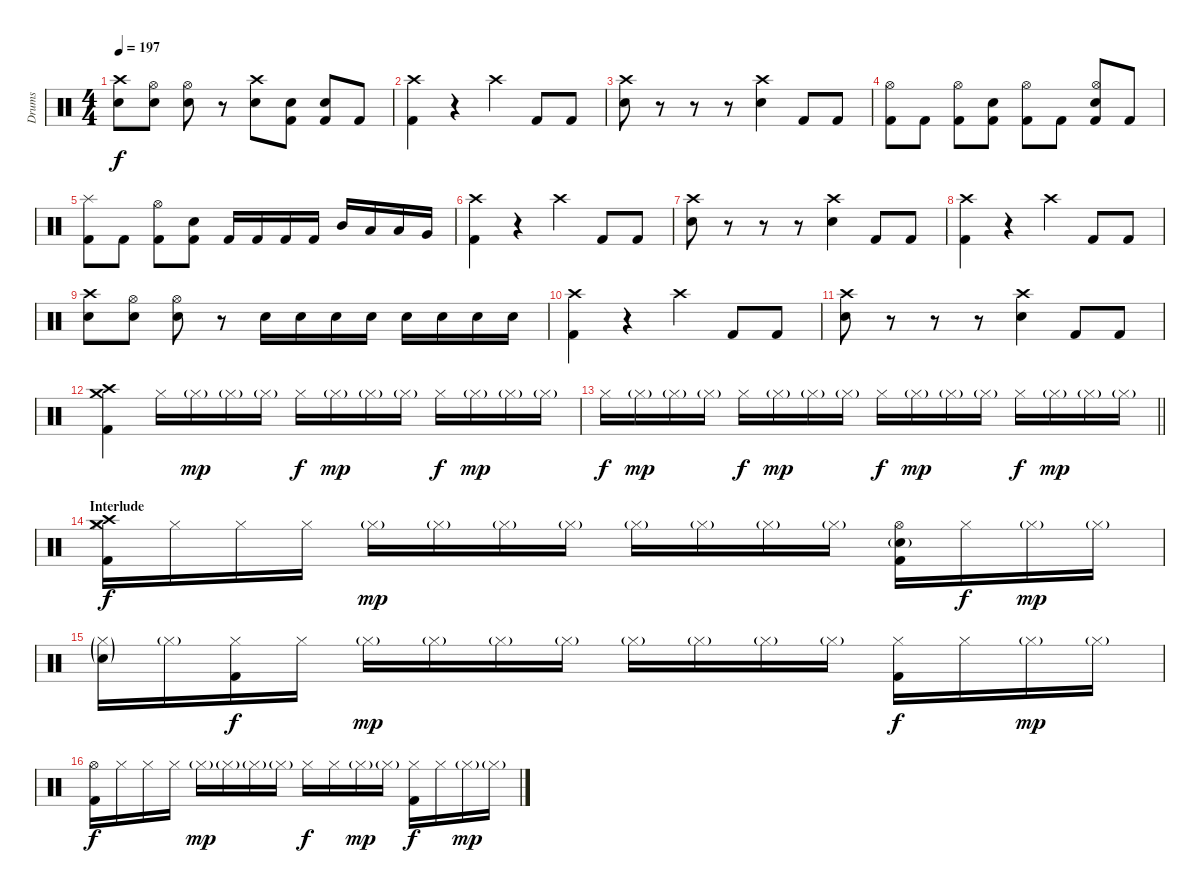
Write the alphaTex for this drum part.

\track ("Drums" "Drums") {instrument percussion}
\staff {score}
\articulation defaults
\ts (4 4)
\tempo 197
\clef neutral
\ks c
("Crash high (hit)" "Electric Snare (hit)").8{dy f} ("Hi-Hat (open)" "Electric Snare (hit)").8 ("Hi-Hat (open)" "Electric Snare (hit)").8 r.8 ("Crash high (hit)" "Electric Snare (hit)").8 ("Electric Snare (hit)" "Kick (hit) 2").8 ("Electric Snare (hit)" "Kick (hit) 2").8 "Kick (hit) 2".8 |
("Crash high (hit)" "Kick (hit) 2").4 r.4 "Crash high (hit)".4 "Kick (hit) 2".8 "Kick (hit) 2".8 |
("Crash high (hit)" "Electric Snare (hit)").8 r.8 r.8 r.8 ("Crash high (hit)" "Electric Snare (hit)").4 "Kick (hit) 2".8 "Kick (hit) 2".8 |
("Hi-Hat (open)" "Kick (hit) 2").8 "Kick (hit) 2".8 ("Hi-Hat (open)" "Kick (hit) 2").8 ("Electric Snare (hit)" "Kick (hit) 2").8 ("Hi-Hat (open)" "Kick (hit) 2").8 "Kick (hit) 2".8 ("Hi-Hat (open)" "Electric Snare (hit)" "Kick (hit) 2").8 "Kick (hit) 2".8 |
("Splash (hit)" "Kick (hit) 2").8 "Kick (hit) 2".8 ("Hi-Hat (open)" "Kick (hit) 2").8 ("Electric Snare (hit)" "Kick (hit) 2").8 "Kick (hit) 2".16 "Kick (hit) 2".16 "Kick (hit) 2".16 "Kick (hit) 2".16 "Mid Tom (hit)".16 "Low Tom (hit)".16 "Low Tom (hit)".16 "Very Low Tom (hit)".16 |
("Crash high (hit)" "Kick (hit) 2").4 r.4 "Crash high (hit)".4 "Kick (hit) 2".8 "Kick (hit) 2".8 |
("Crash high (hit)" "Electric Snare (hit)").8 r.8 r.8 r.8 ("Crash high (hit)" "Electric Snare (hit)").4 "Kick (hit) 2".8 "Kick (hit) 2".8 |
("Crash high (hit)" "Kick (hit) 2").4 r.4 "Crash high (hit)".4 "Kick (hit) 2".8 "Kick (hit) 2".8 |
("Crash high (hit)" "Electric Snare (hit)").8 ("Hi-Hat (open)" "Electric Snare (hit)").8 ("Hi-Hat (open)" "Electric Snare (hit)").8 r.8 "Electric Snare (hit)".16 "Electric Snare (hit)".16 "Electric Snare (hit)".16 "Electric Snare (hit)".16 "Electric Snare (hit)".16 "Electric Snare (hit)".16 "Electric Snare (hit)".16 "Electric Snare (hit)".16 |
("Crash high (hit)" "Kick (hit) 2").4 r.4 "Crash high (hit)".4 "Kick (hit) 2".8 "Kick (hit) 2".8 |
("Crash high (hit)" "Electric Snare (hit)").8 r.8 r.8 r.8 ("Crash high (hit)" "Electric Snare (hit)").4 "Kick (hit) 2".8 "Kick (hit) 2".8 |
("Crash medium (hit)" "Crash high (hit)" "Kick (hit) 2").4 "Hi-Hat (closed)".16 "Hi-Hat (closed)"{g}.16{dy mp} "Hi-Hat (closed)"{g}.16 "Hi-Hat (closed)"{g}.16 "Hi-Hat (closed)".16{dy f} "Hi-Hat (closed)"{g}.16{dy mp} "Hi-Hat (closed)"{g}.16 "Hi-Hat (closed)"{g}.16 "Hi-Hat (closed)".16{dy f} "Hi-Hat (closed)"{g}.16{dy mp} "Hi-Hat (closed)"{g}.16 "Hi-Hat (closed)"{g}.16 |
\barLineRight lightlight "Hi-Hat (closed)".16{dy f} "Hi-Hat (closed)"{g}.16{dy mp} "Hi-Hat (closed)"{g}.16 "Hi-Hat (closed)"{g}.16 "Hi-Hat (closed)".16{dy f} "Hi-Hat (closed)"{g}.16{dy mp} "Hi-Hat (closed)"{g}.16 "Hi-Hat (closed)"{g}.16 "Hi-Hat (closed)".16{dy f} "Hi-Hat (closed)"{g}.16{dy mp} "Hi-Hat (closed)"{g}.16 "Hi-Hat (closed)"{g}.16 "Hi-Hat (closed)".16{dy f} "Hi-Hat (closed)"{g}.16{dy mp} "Hi-Hat (closed)"{g}.16 "Hi-Hat (closed)"{g}.16
|
\section ("" "Interlude")
("Crash medium (hit)" "Crash high (hit)" "Hi-Hat (closed)" "Kick (hit) 2").16{dy f} "Hi-Hat (closed)".16 "Hi-Hat (closed)".16 "Hi-Hat (closed)".16 "Hi-Hat (closed)"{g}.16{dy mp} "Hi-Hat (closed)"{g}.16 "Hi-Hat (closed)"{g}.16 "Hi-Hat (closed)"{g}.16 "Hi-Hat (closed)"{g}.16 "Hi-Hat (closed)"{g}.16 "Hi-Hat (closed)"{g}.16 "Hi-Hat (closed)"{g}.16 ("Hi-Hat (open)" "Snare (hit) 2"{g} "Kick (hit) 2").16 "Hi-Hat (closed)".16{dy f} "Hi-Hat (closed)"{g}.16{dy mp} "Hi-Hat (closed)"{g}.16 |
("Hi-Hat (closed)"{g} "Snare (hit) 2"{g}).16 "Hi-Hat (closed)"{g}.16 ("Hi-Hat (closed)" "Kick (hit) 2").16{dy f} "Hi-Hat (closed)".16 "Hi-Hat (closed)"{g}.16{dy mp} "Hi-Hat (closed)"{g}.16 "Hi-Hat (closed)"{g}.16 "Hi-Hat (closed)"{g}.16 "Hi-Hat (closed)"{g}.16 "Hi-Hat (closed)"{g}.16 "Hi-Hat (closed)"{g}.16 "Hi-Hat (closed)"{g}.16 ("Hi-Hat (closed)" "Kick (hit) 2").16{dy f} "Hi-Hat (closed)".16 "Hi-Hat (closed)"{g}.16{dy mp} "Hi-Hat (closed)"{g}.16 |
("Hi-Hat (open)" "Kick (hit) 2").16{dy f} "Hi-Hat (closed)".16 "Hi-Hat (closed)".16 "Hi-Hat (closed)".16 "Hi-Hat (closed)"{g}.16{dy mp} "Hi-Hat (closed)"{g}.16 "Hi-Hat (closed)"{g}.16 "Hi-Hat (closed)"{g}.16 "Hi-Hat (closed)".16{dy f} "Hi-Hat (closed)".16 "Hi-Hat (closed)"{g}.16{dy mp} "Hi-Hat (closed)"{g}.16 ("Hi-Hat (closed)" "Kick (hit) 2").16{dy f} "Hi-Hat (closed)".16 "Hi-Hat (closed)"{g}.16{dy mp} "Hi-Hat (closed)"{g}.16
